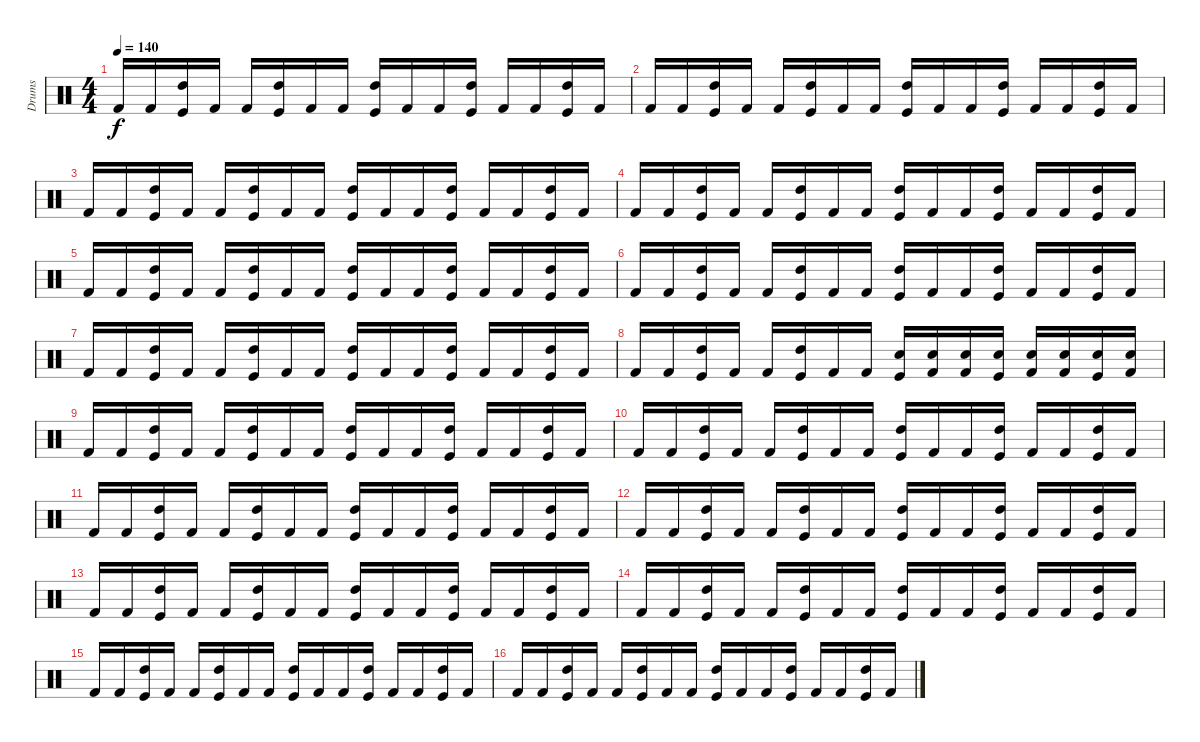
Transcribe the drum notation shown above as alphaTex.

\track ("Drums" "Drums") {instrument percussion}
\staff {score}
\articulation defaults
\ts (4 4)
\tempo 140
\clef neutral
\ks c "Kick (hit) 2".16{dy f} "Kick (hit) 2".16
("Kick (hit)" "High Tom (hit)").16 "Kick (hit) 2".16 "Kick (hit) 2".16 ("Kick (hit)" "High Tom (hit)").16 "Kick (hit) 2".16 "Kick (hit) 2".16 ("Kick (hit)" "High Tom (hit)").16 "Kick (hit) 2".16 "Kick (hit) 2".16 ("Kick (hit)" "High Tom (hit)").16 "Kick (hit) 2".16 "Kick (hit) 2".16 ("Kick (hit)" "High Tom (hit)").16 "Kick (hit) 2".16 |
"Kick (hit) 2".16 "Kick (hit) 2".16 ("Kick (hit)" "High Tom (hit)").16 "Kick (hit) 2".16 "Kick (hit) 2".16 ("Kick (hit)" "High Tom (hit)").16 "Kick (hit) 2".16 "Kick (hit) 2".16 ("Kick (hit)" "High Tom (hit)").16 "Kick (hit) 2".16 "Kick (hit) 2".16 ("Kick (hit)" "High Tom (hit)").16 "Kick (hit) 2".16 "Kick (hit) 2".16 ("Kick (hit)" "High Tom (hit)").16 "Kick (hit) 2".16 |
"Kick (hit) 2".16 "Kick (hit) 2".16 ("Kick (hit)" "High Tom (hit)").16 "Kick (hit) 2".16 "Kick (hit) 2".16 ("Kick (hit)" "High Tom (hit)").16 "Kick (hit) 2".16 "Kick (hit) 2".16 ("Kick (hit)" "High Tom (hit)").16 "Kick (hit) 2".16 "Kick (hit) 2".16 ("Kick (hit)" "High Tom (hit)").16 "Kick (hit) 2".16 "Kick (hit) 2".16 ("Kick (hit)" "High Tom (hit)").16 "Kick (hit) 2".16 |
"Kick (hit) 2".16 "Kick (hit) 2".16 ("Kick (hit)" "High Tom (hit)").16 "Kick (hit) 2".16 "Kick (hit) 2".16 ("Kick (hit)" "High Tom (hit)").16 "Kick (hit) 2".16 "Kick (hit) 2".16 ("Kick (hit)" "High Tom (hit)").16 "Kick (hit) 2".16 "Kick (hit) 2".16 ("Kick (hit)" "High Tom (hit)").16 "Kick (hit) 2".16 "Kick (hit) 2".16 ("Kick (hit)" "High Tom (hit)").16 "Kick (hit) 2".16 |
"Kick (hit) 2".16 "Kick (hit) 2".16 ("Kick (hit)" "High Tom (hit)").16 "Kick (hit) 2".16 "Kick (hit) 2".16 ("Kick (hit)" "High Tom (hit)").16 "Kick (hit) 2".16 "Kick (hit) 2".16 ("Kick (hit)" "High Tom (hit)").16 "Kick (hit) 2".16 "Kick (hit) 2".16 ("Kick (hit)" "High Tom (hit)").16 "Kick (hit) 2".16 "Kick (hit) 2".16 ("Kick (hit)" "High Tom (hit)").16 "Kick (hit) 2".16 |
"Kick (hit) 2".16 "Kick (hit) 2".16 ("Kick (hit)" "High Tom (hit)").16 "Kick (hit) 2".16 "Kick (hit) 2".16 ("Kick (hit)" "High Tom (hit)").16 "Kick (hit) 2".16 "Kick (hit) 2".16 ("Kick (hit)" "High Tom (hit)").16 "Kick (hit) 2".16 "Kick (hit) 2".16 ("Kick (hit)" "High Tom (hit)").16 "Kick (hit) 2".16 "Kick (hit) 2".16 ("Kick (hit)" "High Tom (hit)").16 "Kick (hit) 2".16 |
"Kick (hit) 2".16 "Kick (hit) 2".16 ("Kick (hit)" "High Tom (hit)").16 "Kick (hit) 2".16 "Kick (hit) 2".16 ("Kick (hit)" "High Tom (hit)").16 "Kick (hit) 2".16 "Kick (hit) 2".16 ("Kick (hit)" "High Tom (hit)").16 "Kick (hit) 2".16 "Kick (hit) 2".16 ("Kick (hit)" "High Tom (hit)").16 "Kick (hit) 2".16 "Kick (hit) 2".16 ("Kick (hit)" "High Tom (hit)").16 "Kick (hit) 2".16 |
"Kick (hit) 2".16 "Kick (hit) 2".16 ("Kick (hit)" "High Tom (hit)").16 "Kick (hit) 2".16 "Kick (hit) 2".16 ("Kick (hit)" "High Tom (hit)").16 "Kick (hit) 2".16 "Kick (hit) 2".16 ("Kick (hit)" "Snare (hit) 2").16 ("Kick (hit) 2" "Snare (hit) 2").16 ("Kick (hit) 2" "Snare (hit) 2").16 ("Kick (hit)" "Snare (hit) 2").16 ("Kick (hit) 2" "Snare (hit) 2").16 ("Kick (hit) 2" "Snare (hit) 2").16 ("Kick (hit)" "Snare (hit) 2").16 ("Kick (hit) 2" "Snare (hit) 2").16 |
"Kick (hit) 2".16 "Kick (hit) 2".16 ("Kick (hit)" "High Tom (hit)").16 "Kick (hit) 2".16 "Kick (hit) 2".16 ("Kick (hit)" "High Tom (hit)").16 "Kick (hit) 2".16 "Kick (hit) 2".16 ("Kick (hit)" "High Tom (hit)").16 "Kick (hit) 2".16 "Kick (hit) 2".16 ("Kick (hit)" "High Tom (hit)").16 "Kick (hit) 2".16 "Kick (hit) 2".16 ("Kick (hit)" "High Tom (hit)").16 "Kick (hit) 2".16 |
"Kick (hit) 2".16 "Kick (hit) 2".16 ("Kick (hit)" "High Tom (hit)").16 "Kick (hit) 2".16 "Kick (hit) 2".16 ("Kick (hit)" "High Tom (hit)").16 "Kick (hit) 2".16 "Kick (hit) 2".16 ("Kick (hit)" "High Tom (hit)").16 "Kick (hit) 2".16 "Kick (hit) 2".16 ("Kick (hit)" "High Tom (hit)").16 "Kick (hit) 2".16 "Kick (hit) 2".16 ("Kick (hit)" "High Tom (hit)").16 "Kick (hit) 2".16 |
"Kick (hit) 2".16 "Kick (hit) 2".16 ("Kick (hit)" "High Tom (hit)").16 "Kick (hit) 2".16 "Kick (hit) 2".16 ("Kick (hit)" "High Tom (hit)").16 "Kick (hit) 2".16 "Kick (hit) 2".16 ("Kick (hit)" "High Tom (hit)").16 "Kick (hit) 2".16 "Kick (hit) 2".16 ("Kick (hit)" "High Tom (hit)").16 "Kick (hit) 2".16 "Kick (hit) 2".16 ("Kick (hit)" "High Tom (hit)").16 "Kick (hit) 2".16 |
"Kick (hit) 2".16 "Kick (hit) 2".16 ("Kick (hit)" "High Tom (hit)").16 "Kick (hit) 2".16 "Kick (hit) 2".16 ("Kick (hit)" "High Tom (hit)").16 "Kick (hit) 2".16 "Kick (hit) 2".16 ("Kick (hit)" "High Tom (hit)").16 "Kick (hit) 2".16 "Kick (hit) 2".16 ("Kick (hit)" "High Tom (hit)").16 "Kick (hit) 2".16 "Kick (hit) 2".16 ("Kick (hit)" "High Tom (hit)").16 "Kick (hit) 2".16 |
"Kick (hit) 2".16 "Kick (hit) 2".16 ("Kick (hit)" "High Tom (hit)").16 "Kick (hit) 2".16 "Kick (hit) 2".16 ("Kick (hit)" "High Tom (hit)").16 "Kick (hit) 2".16 "Kick (hit) 2".16 ("Kick (hit)" "High Tom (hit)").16 "Kick (hit) 2".16 "Kick (hit) 2".16 ("Kick (hit)" "High Tom (hit)").16 "Kick (hit) 2".16 "Kick (hit) 2".16 ("Kick (hit)" "High Tom (hit)").16 "Kick (hit) 2".16 |
"Kick (hit) 2".16 "Kick (hit) 2".16 ("Kick (hit)" "High Tom (hit)").16 "Kick (hit) 2".16 "Kick (hit) 2".16 ("Kick (hit)" "High Tom (hit)").16 "Kick (hit) 2".16 "Kick (hit) 2".16 ("Kick (hit)" "High Tom (hit)").16 "Kick (hit) 2".16 "Kick (hit) 2".16 ("Kick (hit)" "High Tom (hit)").16 "Kick (hit) 2".16 "Kick (hit) 2".16 ("Kick (hit)" "High Tom (hit)").16 "Kick (hit) 2".16 |
"Kick (hit) 2".16 "Kick (hit) 2".16 ("Kick (hit)" "High Tom (hit)").16 "Kick (hit) 2".16 "Kick (hit) 2".16 ("Kick (hit)" "High Tom (hit)").16 "Kick (hit) 2".16 "Kick (hit) 2".16 ("Kick (hit)" "High Tom (hit)").16 "Kick (hit) 2".16 "Kick (hit) 2".16 ("Kick (hit)" "High Tom (hit)").16 "Kick (hit) 2".16 "Kick (hit) 2".16 ("Kick (hit)" "High Tom (hit)").16 "Kick (hit) 2".16 |
"Kick (hit) 2".16 "Kick (hit) 2".16 ("Kick (hit)" "High Tom (hit)").16 "Kick (hit) 2".16 "Kick (hit) 2".16 ("Kick (hit)" "High Tom (hit)").16 "Kick (hit) 2".16 "Kick (hit) 2".16 ("Kick (hit)" "High Tom (hit)").16 "Kick (hit) 2".16 "Kick (hit) 2".16 ("Kick (hit)" "High Tom (hit)").16 "Kick (hit) 2".16 "Kick (hit) 2".16 ("Kick (hit)" "High Tom (hit)").16 "Kick (hit) 2".16
